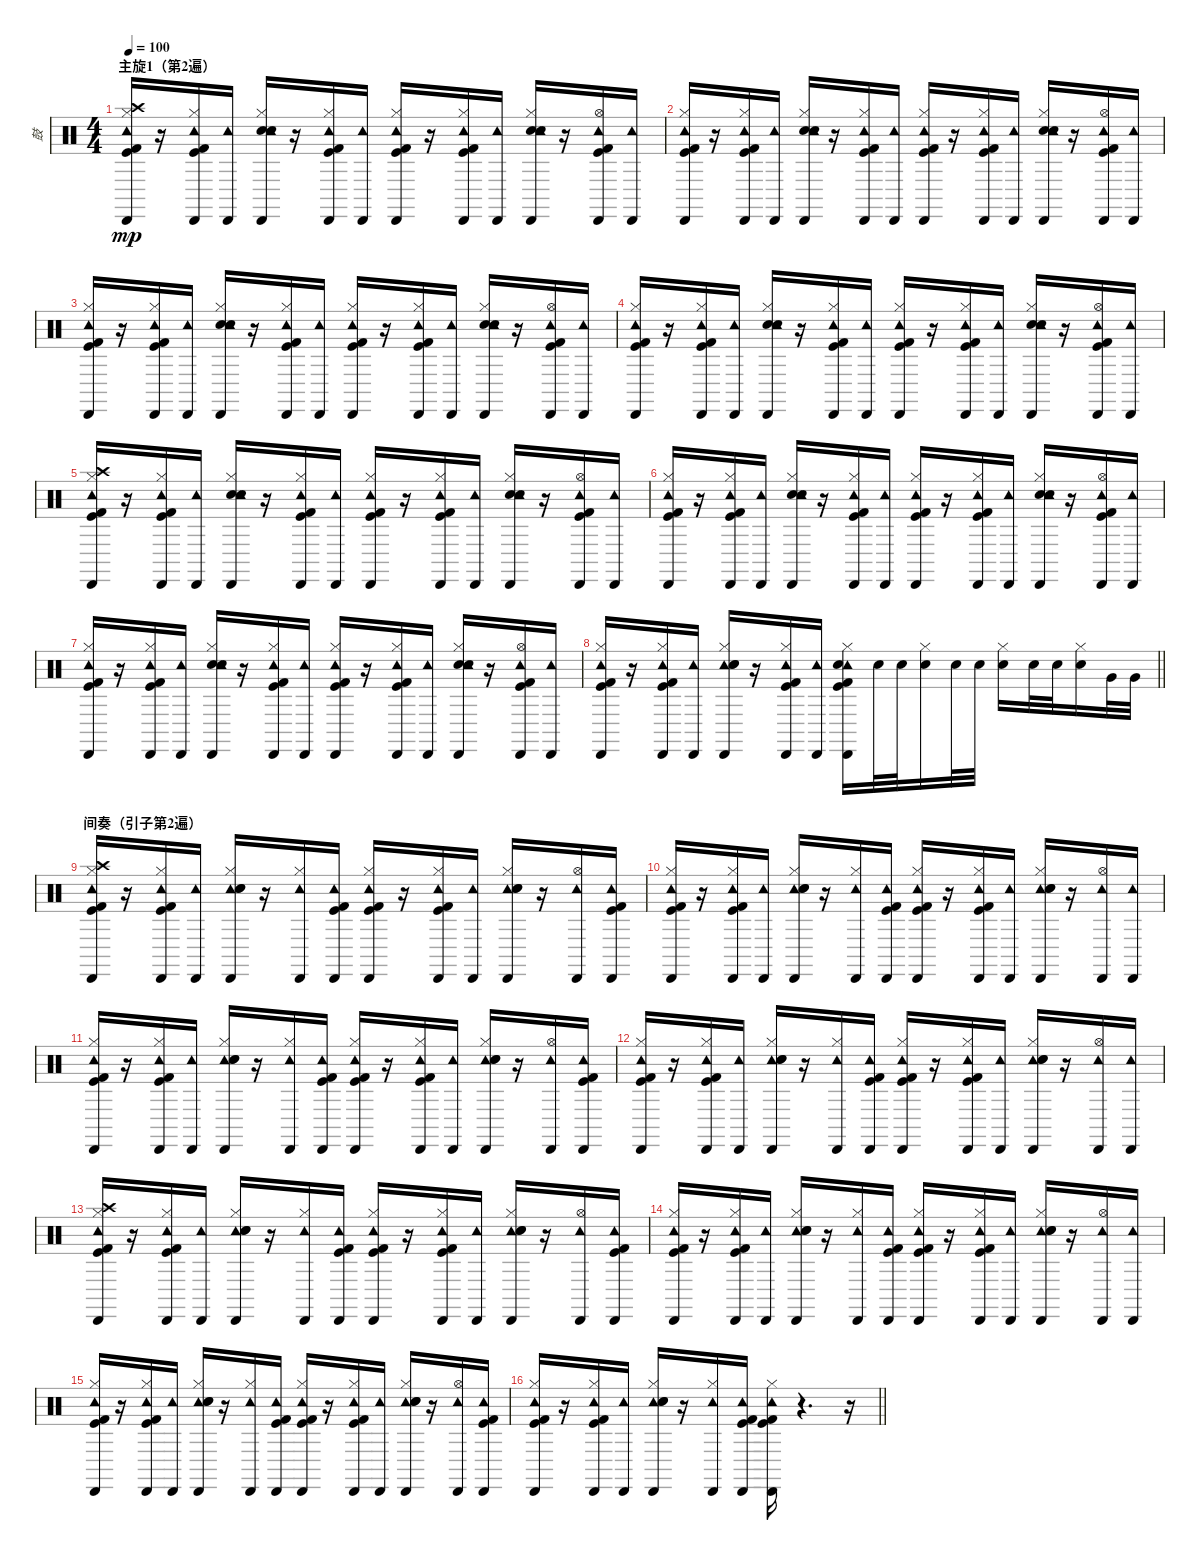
\track ("鼓" "鼓") {instrument percussion}
\staff {score}
\articulation defaults
\ts (4 4)
\section ("" "主旋1（第2遍）")
\tempo 100
\clef neutral
\ks c
("Crash high (hit)" "Kick (hit)" "Kick (hit) 2" "Tambourine (hit)" "Cabasa (hit)" "Hi-Hat (closed)").16{dy mp} r.16 ("Kick (hit)" "Kick (hit) 2" "Tambourine (hit)" "Cabasa (hit)" "Hi-Hat (closed)").16 ("Tambourine (hit)" "Cabasa (hit)").16 ("Electric Snare (hit)" "Hand Clap (hit)" "Tambourine (hit)" "Cabasa (hit)" "Hi-Hat (closed)").16 r.16 ("Kick (hit)" "Kick (hit) 2" "Tambourine (hit)" "Cabasa (hit)" "Hi-Hat (closed)").16 ("Tambourine (hit)" "Cabasa (hit)").16 ("Kick (hit)" "Kick (hit) 2" "Tambourine (hit)" "Cabasa (hit)" "Hi-Hat (closed)").16 r.16 ("Kick (hit)" "Kick (hit) 2" "Tambourine (hit)" "Cabasa (hit)" "Hi-Hat (closed)").16 ("Tambourine (hit)" "Cabasa (hit)").16 ("Electric Snare (hit)" "Hand Clap (hit)" "Tambourine (hit)" "Cabasa (hit)" "Hi-Hat (closed)").16 r.16 ("Kick (hit)" "Kick (hit) 2" "Tambourine (hit)" "Cabasa (hit)" "Hi-Hat (open)").16 ("Tambourine (hit)" "Cabasa (hit)").16 |
("Kick (hit)" "Kick (hit) 2" "Tambourine (hit)" "Cabasa (hit)" "Hi-Hat (closed)").16 r.16 ("Kick (hit)" "Kick (hit) 2" "Tambourine (hit)" "Cabasa (hit)" "Hi-Hat (closed)").16 ("Tambourine (hit)" "Cabasa (hit)").16 ("Electric Snare (hit)" "Hand Clap (hit)" "Tambourine (hit)" "Cabasa (hit)" "Hi-Hat (closed)").16 r.16 ("Kick (hit)" "Kick (hit) 2" "Tambourine (hit)" "Cabasa (hit)" "Hi-Hat (closed)").16 ("Tambourine (hit)" "Cabasa (hit)").16 ("Kick (hit)" "Kick (hit) 2" "Tambourine (hit)" "Cabasa (hit)" "Hi-Hat (closed)").16 r.16 ("Kick (hit)" "Kick (hit) 2" "Tambourine (hit)" "Cabasa (hit)" "Hi-Hat (closed)").16 ("Tambourine (hit)" "Cabasa (hit)").16 ("Electric Snare (hit)" "Hand Clap (hit)" "Tambourine (hit)" "Cabasa (hit)" "Hi-Hat (closed)").16 r.16 ("Kick (hit)" "Kick (hit) 2" "Tambourine (hit)" "Cabasa (hit)" "Hi-Hat (open)").16 ("Tambourine (hit)" "Cabasa (hit)").16 |
("Kick (hit)" "Kick (hit) 2" "Tambourine (hit)" "Cabasa (hit)" "Hi-Hat (closed)").16 r.16 ("Kick (hit)" "Kick (hit) 2" "Tambourine (hit)" "Cabasa (hit)" "Hi-Hat (closed)").16 ("Tambourine (hit)" "Cabasa (hit)").16 ("Electric Snare (hit)" "Hand Clap (hit)" "Tambourine (hit)" "Cabasa (hit)" "Hi-Hat (closed)").16 r.16 ("Kick (hit)" "Kick (hit) 2" "Tambourine (hit)" "Cabasa (hit)" "Hi-Hat (closed)").16 ("Tambourine (hit)" "Cabasa (hit)").16 ("Kick (hit)" "Kick (hit) 2" "Tambourine (hit)" "Cabasa (hit)" "Hi-Hat (closed)").16 r.16 ("Kick (hit)" "Kick (hit) 2" "Tambourine (hit)" "Cabasa (hit)" "Hi-Hat (closed)").16 ("Tambourine (hit)" "Cabasa (hit)").16 ("Electric Snare (hit)" "Hand Clap (hit)" "Tambourine (hit)" "Cabasa (hit)" "Hi-Hat (closed)").16 r.16 ("Kick (hit)" "Kick (hit) 2" "Tambourine (hit)" "Cabasa (hit)" "Hi-Hat (open)").16 ("Tambourine (hit)" "Cabasa (hit)").16 |
("Kick (hit)" "Kick (hit) 2" "Tambourine (hit)" "Cabasa (hit)" "Hi-Hat (closed)").16 r.16 ("Kick (hit)" "Kick (hit) 2" "Tambourine (hit)" "Cabasa (hit)" "Hi-Hat (closed)").16 ("Tambourine (hit)" "Cabasa (hit)").16 ("Electric Snare (hit)" "Hand Clap (hit)" "Tambourine (hit)" "Cabasa (hit)" "Hi-Hat (closed)").16 r.16 ("Kick (hit)" "Kick (hit) 2" "Tambourine (hit)" "Cabasa (hit)" "Hi-Hat (closed)").16 ("Tambourine (hit)" "Cabasa (hit)").16 ("Kick (hit)" "Kick (hit) 2" "Tambourine (hit)" "Cabasa (hit)" "Hi-Hat (closed)").16 r.16 ("Kick (hit)" "Kick (hit) 2" "Tambourine (hit)" "Cabasa (hit)" "Hi-Hat (closed)").16 ("Tambourine (hit)" "Cabasa (hit)").16 ("Electric Snare (hit)" "Hand Clap (hit)" "Tambourine (hit)" "Cabasa (hit)" "Hi-Hat (closed)").16 r.16 ("Kick (hit)" "Kick (hit) 2" "Tambourine (hit)" "Cabasa (hit)" "Hi-Hat (open)").16 ("Tambourine (hit)" "Cabasa (hit)").16 |
("Crash high (hit)" "Kick (hit)" "Kick (hit) 2" "Tambourine (hit)" "Cabasa (hit)" "Hi-Hat (closed)").16 r.16 ("Kick (hit)" "Kick (hit) 2" "Tambourine (hit)" "Cabasa (hit)" "Hi-Hat (closed)").16 ("Tambourine (hit)" "Cabasa (hit)").16 ("Electric Snare (hit)" "Hand Clap (hit)" "Tambourine (hit)" "Cabasa (hit)" "Hi-Hat (closed)").16 r.16 ("Kick (hit)" "Kick (hit) 2" "Tambourine (hit)" "Cabasa (hit)" "Hi-Hat (closed)").16 ("Tambourine (hit)" "Cabasa (hit)").16 ("Kick (hit)" "Kick (hit) 2" "Tambourine (hit)" "Cabasa (hit)" "Hi-Hat (closed)").16 r.16 ("Kick (hit)" "Kick (hit) 2" "Tambourine (hit)" "Cabasa (hit)" "Hi-Hat (closed)").16 ("Tambourine (hit)" "Cabasa (hit)").16 ("Electric Snare (hit)" "Hand Clap (hit)" "Tambourine (hit)" "Cabasa (hit)" "Hi-Hat (closed)").16 r.16 ("Kick (hit)" "Kick (hit) 2" "Tambourine (hit)" "Cabasa (hit)" "Hi-Hat (open)").16 ("Tambourine (hit)" "Cabasa (hit)").16 |
("Kick (hit)" "Kick (hit) 2" "Tambourine (hit)" "Cabasa (hit)" "Hi-Hat (closed)").16 r.16 ("Kick (hit)" "Kick (hit) 2" "Tambourine (hit)" "Cabasa (hit)" "Hi-Hat (closed)").16 ("Tambourine (hit)" "Cabasa (hit)").16 ("Electric Snare (hit)" "Hand Clap (hit)" "Tambourine (hit)" "Cabasa (hit)" "Hi-Hat (closed)").16 r.16 ("Kick (hit)" "Kick (hit) 2" "Tambourine (hit)" "Cabasa (hit)" "Hi-Hat (closed)").16 ("Tambourine (hit)" "Cabasa (hit)").16 ("Kick (hit)" "Kick (hit) 2" "Tambourine (hit)" "Cabasa (hit)" "Hi-Hat (closed)").16 r.16 ("Kick (hit)" "Kick (hit) 2" "Tambourine (hit)" "Cabasa (hit)" "Hi-Hat (closed)").16 ("Tambourine (hit)" "Cabasa (hit)").16 ("Electric Snare (hit)" "Hand Clap (hit)" "Tambourine (hit)" "Cabasa (hit)" "Hi-Hat (closed)").16 r.16 ("Kick (hit)" "Kick (hit) 2" "Tambourine (hit)" "Cabasa (hit)" "Hi-Hat (open)").16 ("Tambourine (hit)" "Cabasa (hit)").16 |
("Kick (hit)" "Kick (hit) 2" "Tambourine (hit)" "Cabasa (hit)" "Hi-Hat (closed)").16 r.16 ("Kick (hit)" "Kick (hit) 2" "Tambourine (hit)" "Cabasa (hit)" "Hi-Hat (closed)").16 ("Tambourine (hit)" "Cabasa (hit)").16 ("Electric Snare (hit)" "Hand Clap (hit)" "Tambourine (hit)" "Cabasa (hit)" "Hi-Hat (closed)").16 r.16 ("Kick (hit)" "Kick (hit) 2" "Tambourine (hit)" "Cabasa (hit)" "Hi-Hat (closed)").16 ("Tambourine (hit)" "Cabasa (hit)").16 ("Kick (hit)" "Kick (hit) 2" "Tambourine (hit)" "Cabasa (hit)" "Hi-Hat (closed)").16 r.16 ("Kick (hit)" "Kick (hit) 2" "Tambourine (hit)" "Cabasa (hit)" "Hi-Hat (closed)").16 ("Tambourine (hit)" "Cabasa (hit)").16 ("Electric Snare (hit)" "Hand Clap (hit)" "Tambourine (hit)" "Cabasa (hit)" "Hi-Hat (closed)").16 r.16 ("Kick (hit)" "Kick (hit) 2" "Tambourine (hit)" "Cabasa (hit)" "Hi-Hat (open)").16 ("Tambourine (hit)" "Cabasa (hit)").16 |
\barLineRight lightlight
("Kick (hit)" "Kick (hit) 2" "Hi-Hat (closed)" "Tambourine (hit)" "Cabasa (hit)").16 r.16 ("Kick (hit)" "Kick (hit) 2" "Hi-Hat (closed)" "Tambourine (hit)" "Cabasa (hit)").16 ("Tambourine (hit)" "Cabasa (hit)").16 ("Hi-Hat (closed)" "Tambourine (hit)" "Cabasa (hit)" "Electric Snare (hit)" "Hand Clap (hit)").16 r.16 ("Kick (hit)" "Kick (hit) 2" "Hi-Hat (closed)" "Tambourine (hit)" "Cabasa (hit)").16 ("Tambourine (hit)" "Cabasa (hit)").16 ("Kick (hit)" "Kick (hit) 2" "Hi-Hat (closed)" "Tambourine (hit)" "Cabasa (hit)" "Electric Snare (hit)").16 "Electric Snare (hit)".32 "Electric Snare (hit)".32 ("Hi-Hat (closed)" "Electric Snare (hit)").16 "Electric Snare (hit)".32 "Electric Snare (hit)".32 ("Hi-Hat (closed)" "Electric Snare (hit)").16 "Electric Snare (hit)".32 "Electric Snare (hit)".32 ("Hi-Hat (closed)" "Electric Snare (hit)").16 "Very Low Tom (hit)".32 "Very Low Tom (hit)".32 |
\section ("" "间奏（引子第2遍）")
("Crash high (hit)" "Kick (hit)" "Kick (hit) 2" "Tambourine (hit)" "Cabasa (hit)" "Hi-Hat (closed)").16 r.16 ("Kick (hit)" "Kick (hit) 2" "Tambourine (hit)" "Cabasa (hit)" "Hi-Hat (closed)").16 ("Tambourine (hit)" "Cabasa (hit)").16 ("Tambourine (hit)" "Cabasa (hit)" "Electric Snare (hit)" "Hand Clap (hit)" "Hi-Hat (closed)").16 r.16 ("Tambourine (hit)" "Cabasa (hit)" "Hi-Hat (closed)").16 ("Kick (hit)" "Kick (hit) 2" "Tambourine (hit)" "Cabasa (hit)").16 ("Kick (hit)" "Kick (hit) 2" "Tambourine (hit)" "Cabasa (hit)" "Hi-Hat (closed)").16 r.16 ("Kick (hit)" "Kick (hit) 2" "Tambourine (hit)" "Cabasa (hit)" "Hi-Hat (closed)").16 ("Tambourine (hit)" "Cabasa (hit)").16 ("Tambourine (hit)" "Cabasa (hit)" "Electric Snare (hit)" "Hand Clap (hit)" "Hi-Hat (closed)").16 r.16 ("Tambourine (hit)" "Cabasa (hit)" "Hi-Hat (open)").16 ("Kick (hit)" "Kick (hit) 2" "Tambourine (hit)" "Cabasa (hit)").16 |
("Kick (hit)" "Kick (hit) 2" "Tambourine (hit)" "Cabasa (hit)" "Hi-Hat (closed)").16 r.16 ("Kick (hit)" "Kick (hit) 2" "Tambourine (hit)" "Cabasa (hit)" "Hi-Hat (closed)").16 ("Tambourine (hit)" "Cabasa (hit)").16 ("Tambourine (hit)" "Cabasa (hit)" "Electric Snare (hit)" "Hand Clap (hit)" "Hi-Hat (closed)").16 r.16 ("Tambourine (hit)" "Cabasa (hit)" "Hi-Hat (closed)").16 ("Kick (hit)" "Kick (hit) 2" "Tambourine (hit)" "Cabasa (hit)").16 ("Kick (hit)" "Kick (hit) 2" "Tambourine (hit)" "Cabasa (hit)" "Hi-Hat (closed)").16 r.16 ("Kick (hit)" "Kick (hit) 2" "Tambourine (hit)" "Cabasa (hit)" "Hi-Hat (closed)").16 ("Tambourine (hit)" "Cabasa (hit)").16 ("Tambourine (hit)" "Cabasa (hit)" "Electric Snare (hit)" "Hand Clap (hit)" "Hi-Hat (closed)").16 r.16 ("Tambourine (hit)" "Cabasa (hit)" "Hi-Hat (open)").16 ("Tambourine (hit)" "Cabasa (hit)").16 |
("Kick (hit)" "Kick (hit) 2" "Tambourine (hit)" "Cabasa (hit)" "Hi-Hat (closed)").16 r.16 ("Kick (hit)" "Kick (hit) 2" "Tambourine (hit)" "Cabasa (hit)" "Hi-Hat (closed)").16 ("Tambourine (hit)" "Cabasa (hit)").16 ("Tambourine (hit)" "Cabasa (hit)" "Electric Snare (hit)" "Hand Clap (hit)" "Hi-Hat (closed)").16 r.16 ("Tambourine (hit)" "Cabasa (hit)" "Hi-Hat (closed)").16 ("Kick (hit)" "Kick (hit) 2" "Tambourine (hit)" "Cabasa (hit)").16 ("Kick (hit)" "Kick (hit) 2" "Tambourine (hit)" "Cabasa (hit)" "Hi-Hat (closed)").16 r.16 ("Kick (hit)" "Kick (hit) 2" "Tambourine (hit)" "Cabasa (hit)" "Hi-Hat (closed)").16 ("Tambourine (hit)" "Cabasa (hit)").16 ("Tambourine (hit)" "Cabasa (hit)" "Electric Snare (hit)" "Hand Clap (hit)" "Hi-Hat (closed)").16 r.16 ("Tambourine (hit)" "Cabasa (hit)" "Hi-Hat (open)").16 ("Kick (hit)" "Kick (hit) 2" "Tambourine (hit)" "Cabasa (hit)").16 |
("Kick (hit)" "Kick (hit) 2" "Tambourine (hit)" "Cabasa (hit)" "Hi-Hat (closed)").16 r.16 ("Kick (hit)" "Kick (hit) 2" "Tambourine (hit)" "Cabasa (hit)" "Hi-Hat (closed)").16 ("Tambourine (hit)" "Cabasa (hit)").16 ("Tambourine (hit)" "Cabasa (hit)" "Electric Snare (hit)" "Hand Clap (hit)" "Hi-Hat (closed)").16 r.16 ("Tambourine (hit)" "Cabasa (hit)" "Hi-Hat (closed)").16 ("Kick (hit)" "Kick (hit) 2" "Tambourine (hit)" "Cabasa (hit)").16 ("Kick (hit)" "Kick (hit) 2" "Tambourine (hit)" "Cabasa (hit)" "Hi-Hat (closed)").16 r.16 ("Kick (hit)" "Kick (hit) 2" "Tambourine (hit)" "Cabasa (hit)" "Hi-Hat (closed)").16 ("Tambourine (hit)" "Cabasa (hit)").16 ("Tambourine (hit)" "Cabasa (hit)" "Electric Snare (hit)" "Hand Clap (hit)" "Hi-Hat (closed)").16 r.16 ("Tambourine (hit)" "Cabasa (hit)" "Hi-Hat (open)").16 ("Tambourine (hit)" "Cabasa (hit)").16 |
("Kick (hit)" "Kick (hit) 2" "Tambourine (hit)" "Cabasa (hit)" "Hi-Hat (closed)" "Crash high (hit)").16 r.16 ("Kick (hit)" "Kick (hit) 2" "Tambourine (hit)" "Cabasa (hit)" "Hi-Hat (closed)").16 ("Tambourine (hit)" "Cabasa (hit)").16 ("Tambourine (hit)" "Cabasa (hit)" "Electric Snare (hit)" "Hand Clap (hit)" "Hi-Hat (closed)").16 r.16 ("Tambourine (hit)" "Cabasa (hit)" "Hi-Hat (closed)").16 ("Kick (hit)" "Kick (hit) 2" "Tambourine (hit)" "Cabasa (hit)").16 ("Kick (hit)" "Kick (hit) 2" "Tambourine (hit)" "Cabasa (hit)" "Hi-Hat (closed)").16 r.16 ("Kick (hit)" "Kick (hit) 2" "Tambourine (hit)" "Cabasa (hit)" "Hi-Hat (closed)").16 ("Tambourine (hit)" "Cabasa (hit)").16 ("Tambourine (hit)" "Cabasa (hit)" "Electric Snare (hit)" "Hand Clap (hit)" "Hi-Hat (closed)").16 r.16 ("Tambourine (hit)" "Cabasa (hit)" "Hi-Hat (open)").16 ("Kick (hit)" "Kick (hit) 2" "Tambourine (hit)" "Cabasa (hit)").16 |
("Kick (hit)" "Kick (hit) 2" "Tambourine (hit)" "Cabasa (hit)" "Hi-Hat (closed)").16 r.16 ("Kick (hit)" "Kick (hit) 2" "Tambourine (hit)" "Cabasa (hit)" "Hi-Hat (closed)").16 ("Tambourine (hit)" "Cabasa (hit)").16 ("Tambourine (hit)" "Cabasa (hit)" "Electric Snare (hit)" "Hand Clap (hit)" "Hi-Hat (closed)").16 r.16 ("Tambourine (hit)" "Cabasa (hit)" "Hi-Hat (closed)").16 ("Kick (hit)" "Kick (hit) 2" "Tambourine (hit)" "Cabasa (hit)").16 ("Kick (hit)" "Kick (hit) 2" "Tambourine (hit)" "Cabasa (hit)" "Hi-Hat (closed)").16 r.16 ("Kick (hit)" "Kick (hit) 2" "Tambourine (hit)" "Cabasa (hit)" "Hi-Hat (closed)").16 ("Tambourine (hit)" "Cabasa (hit)").16 ("Tambourine (hit)" "Cabasa (hit)" "Electric Snare (hit)" "Hand Clap (hit)" "Hi-Hat (closed)").16 r.16 ("Tambourine (hit)" "Cabasa (hit)" "Hi-Hat (open)").16 ("Tambourine (hit)" "Cabasa (hit)").16 |
("Kick (hit)" "Kick (hit) 2" "Tambourine (hit)" "Cabasa (hit)" "Hi-Hat (closed)").16 r.16 ("Kick (hit)" "Kick (hit) 2" "Tambourine (hit)" "Cabasa (hit)" "Hi-Hat (closed)").16 ("Tambourine (hit)" "Cabasa (hit)").16 ("Tambourine (hit)" "Cabasa (hit)" "Electric Snare (hit)" "Hand Clap (hit)" "Hi-Hat (closed)").16 r.16 ("Tambourine (hit)" "Cabasa (hit)" "Hi-Hat (closed)").16 ("Kick (hit)" "Kick (hit) 2" "Tambourine (hit)" "Cabasa (hit)").16 ("Kick (hit)" "Kick (hit) 2" "Tambourine (hit)" "Cabasa (hit)" "Hi-Hat (closed)").16 r.16 ("Kick (hit)" "Kick (hit) 2" "Tambourine (hit)" "Cabasa (hit)" "Hi-Hat (closed)").16 ("Tambourine (hit)" "Cabasa (hit)").16 ("Tambourine (hit)" "Cabasa (hit)" "Electric Snare (hit)" "Hand Clap (hit)" "Hi-Hat (closed)").16 r.16 ("Tambourine (hit)" "Cabasa (hit)" "Hi-Hat (open)").16 ("Kick (hit)" "Kick (hit) 2" "Tambourine (hit)" "Cabasa (hit)").16 |
\barLineRight lightlight
("Kick (hit)" "Kick (hit) 2" "Tambourine (hit)" "Cabasa (hit)" "Hi-Hat (closed)").16 r.16 ("Kick (hit)" "Kick (hit) 2" "Tambourine (hit)" "Cabasa (hit)" "Hi-Hat (closed)").16 ("Tambourine (hit)" "Cabasa (hit)").16 ("Tambourine (hit)" "Cabasa (hit)" "Electric Snare (hit)" "Hand Clap (hit)" "Hi-Hat (closed)").16 r.16 ("Tambourine (hit)" "Cabasa (hit)" "Hi-Hat (closed)").16 ("Kick (hit)" "Kick (hit) 2" "Tambourine (hit)" "Cabasa (hit)").16 ("Kick (hit)" "Kick (hit) 2" "Tambourine (hit)" "Cabasa (hit)" "Hi-Hat (closed)").16 r.4{d} r.16
